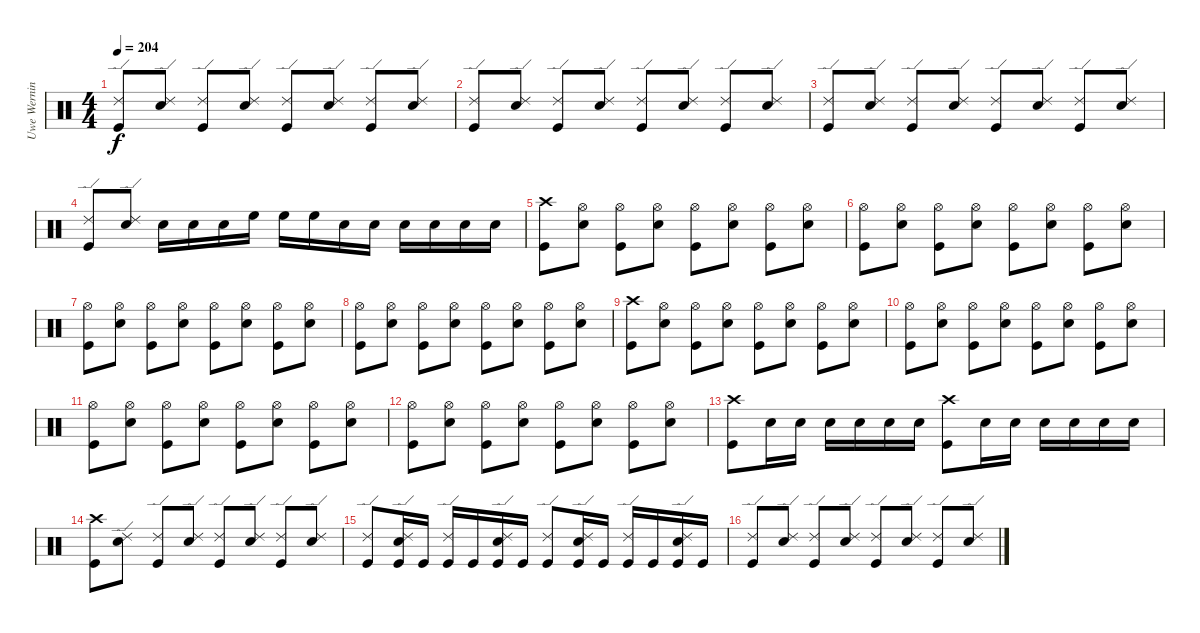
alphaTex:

\track ("Uwe Werning" "Uwe Wernin") {instrument percussion}
\staff {score}
\articulation defaults
\ts (4 4)
\tempo 204
\clef neutral
\ks c
("Ride (edge) 2" "Kick (hit)").8{dy f} ("Ride (edge) 2" "Snare (hit) 2").8 ("Ride (edge) 2" "Kick (hit)").8 ("Ride (edge) 2" "Snare (hit) 2").8 ("Ride (edge) 2" "Kick (hit)").8 ("Ride (edge) 2" "Snare (hit) 2").8 ("Ride (edge) 2" "Kick (hit)").8 ("Ride (edge) 2" "Snare (hit) 2").8 |
("Ride (edge) 2" "Kick (hit)").8 ("Ride (edge) 2" "Snare (hit) 2").8 ("Ride (edge) 2" "Kick (hit)").8 ("Ride (edge) 2" "Snare (hit) 2").8 ("Ride (edge) 2" "Kick (hit)").8 ("Ride (edge) 2" "Snare (hit) 2").8 ("Ride (edge) 2" "Kick (hit)").8 ("Ride (edge) 2" "Snare (hit) 2").8 |
("Ride (edge) 2" "Kick (hit)").8 ("Ride (edge) 2" "Snare (hit) 2").8 ("Ride (edge) 2" "Kick (hit)").8 ("Ride (edge) 2" "Snare (hit) 2").8 ("Ride (edge) 2" "Kick (hit)").8 ("Ride (edge) 2" "Snare (hit) 2").8 ("Ride (edge) 2" "Kick (hit)").8 ("Ride (edge) 2" "Snare (hit) 2").8 |
("Ride (edge) 2" "Kick (hit)").8 ("Ride (edge) 2" "Snare (hit) 2").8 "Snare (hit) 2".16 "Snare (hit) 2".16 "Snare (hit) 2".16 "High Floor Tom (hit)".16 "High Floor Tom (hit)".16 "High Floor Tom (hit)".16 "Snare (hit) 2".16 "Snare (hit) 2".16 "Snare (hit) 2".16 "Snare (hit) 2".16 "Snare (hit) 2".16 "Snare (hit) 2".16 |
("Crash high (hit)" "Kick (hit)").8 ("Hi-Hat (open)" "Snare (hit) 2").8 ("Hi-Hat (open)" "Kick (hit)").8 ("Hi-Hat (open)" "Snare (hit) 2").8 ("Hi-Hat (open)" "Kick (hit)").8 ("Hi-Hat (open)" "Snare (hit) 2").8 ("Hi-Hat (open)" "Kick (hit)").8 ("Hi-Hat (open)" "Snare (hit) 2").8 |
("Hi-Hat (open)" "Kick (hit)").8 ("Hi-Hat (open)" "Snare (hit) 2").8 ("Hi-Hat (open)" "Kick (hit)").8 ("Hi-Hat (open)" "Snare (hit) 2").8 ("Hi-Hat (open)" "Kick (hit)").8 ("Hi-Hat (open)" "Snare (hit) 2").8 ("Hi-Hat (open)" "Kick (hit)").8 ("Hi-Hat (open)" "Snare (hit) 2").8 |
("Hi-Hat (open)" "Kick (hit)").8 ("Hi-Hat (open)" "Snare (hit) 2").8 ("Hi-Hat (open)" "Kick (hit)").8 ("Hi-Hat (open)" "Snare (hit) 2").8 ("Hi-Hat (open)" "Kick (hit)").8 ("Hi-Hat (open)" "Snare (hit) 2").8 ("Hi-Hat (open)" "Kick (hit)").8 ("Hi-Hat (open)" "Snare (hit) 2").8 |
("Hi-Hat (open)" "Kick (hit)").8 ("Hi-Hat (open)" "Snare (hit) 2").8 ("Hi-Hat (open)" "Kick (hit)").8 ("Hi-Hat (open)" "Snare (hit) 2").8 ("Hi-Hat (open)" "Kick (hit)").8 ("Hi-Hat (open)" "Snare (hit) 2").8 ("Hi-Hat (open)" "Kick (hit)").8 ("Hi-Hat (open)" "Snare (hit) 2").8 |
("Crash high (hit)" "Kick (hit)").8 ("Hi-Hat (open)" "Snare (hit) 2").8 ("Hi-Hat (open)" "Kick (hit)").8 ("Hi-Hat (open)" "Snare (hit) 2").8 ("Hi-Hat (open)" "Kick (hit)").8 ("Hi-Hat (open)" "Snare (hit) 2").8 ("Hi-Hat (open)" "Kick (hit)").8 ("Hi-Hat (open)" "Snare (hit) 2").8 |
("Hi-Hat (open)" "Kick (hit)").8 ("Hi-Hat (open)" "Snare (hit) 2").8 ("Hi-Hat (open)" "Kick (hit)").8 ("Hi-Hat (open)" "Snare (hit) 2").8 ("Hi-Hat (open)" "Kick (hit)").8 ("Hi-Hat (open)" "Snare (hit) 2").8 ("Hi-Hat (open)" "Kick (hit)").8 ("Hi-Hat (open)" "Snare (hit) 2").8 |
("Hi-Hat (open)" "Kick (hit)").8 ("Hi-Hat (open)" "Snare (hit) 2").8 ("Hi-Hat (open)" "Kick (hit)").8 ("Hi-Hat (open)" "Snare (hit) 2").8 ("Hi-Hat (open)" "Kick (hit)").8 ("Hi-Hat (open)" "Snare (hit) 2").8 ("Hi-Hat (open)" "Kick (hit)").8 ("Hi-Hat (open)" "Snare (hit) 2").8 |
("Hi-Hat (open)" "Kick (hit)").8 ("Hi-Hat (open)" "Snare (hit) 2").8 ("Hi-Hat (open)" "Kick (hit)").8 ("Hi-Hat (open)" "Snare (hit) 2").8 ("Hi-Hat (open)" "Kick (hit)").8 ("Hi-Hat (open)" "Snare (hit) 2").8 ("Hi-Hat (open)" "Kick (hit)").8 ("Hi-Hat (open)" "Snare (hit) 2").8 |
("Crash high (hit)" "Kick (hit)").8 "Snare (hit) 2".16 "Snare (hit) 2".16 "Snare (hit) 2".16 "Snare (hit) 2".16 "Snare (hit) 2".16 "Snare (hit) 2".16 ("Crash high (hit)" "Kick (hit)").8 "Snare (hit) 2".16 "Snare (hit) 2".16 "Snare (hit) 2".16 "Snare (hit) 2".16 "Snare (hit) 2".16 "Snare (hit) 2".16 |
("Crash high (hit)" "Kick (hit)").8 ("Ride (edge) 2" "Snare (hit) 2").8 ("Ride (edge) 2" "Kick (hit)").8 ("Ride (edge) 2" "Snare (hit) 2").8 ("Ride (edge) 2" "Kick (hit)").8 ("Ride (edge) 2" "Snare (hit) 2").8 ("Ride (edge) 2" "Kick (hit)").8 ("Ride (edge) 2" "Snare (hit) 2").8 |
("Ride (edge) 2" "Kick (hit)").8 ("Ride (edge) 2" "Snare (hit) 2" "Kick (hit)").16 "Kick (hit)".16 ("Ride (edge) 2" "Kick (hit)").16 "Kick (hit)".16 ("Ride (edge) 2" "Snare (hit) 2" "Kick (hit)").16 "Kick (hit)".16 ("Ride (edge) 2" "Kick (hit)").8 ("Ride (edge) 2" "Snare (hit) 2" "Kick (hit)").16 "Kick (hit)".16 ("Ride (edge) 2" "Kick (hit)").16 "Kick (hit)".16 ("Ride (edge) 2" "Snare (hit) 2" "Kick (hit)").16 "Kick (hit)".16 |
("Ride (edge) 2" "Kick (hit)").8 ("Ride (edge) 2" "Snare (hit) 2").8 ("Ride (edge) 2" "Kick (hit)").8 ("Ride (edge) 2" "Snare (hit) 2").8 ("Ride (edge) 2" "Kick (hit)").8 ("Ride (edge) 2" "Snare (hit) 2").8 ("Ride (edge) 2" "Kick (hit)").8 ("Ride (edge) 2" "Snare (hit) 2").8
